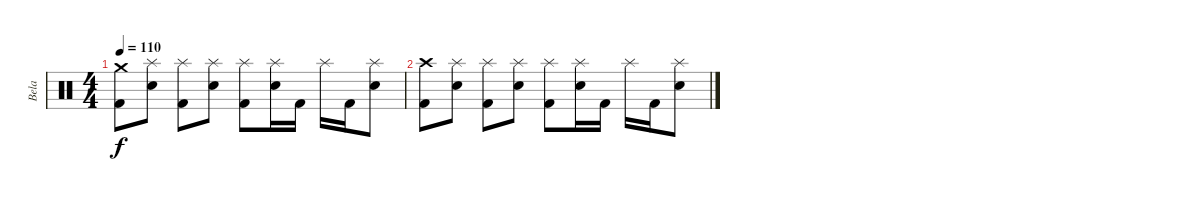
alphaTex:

\track ("Bela " "Bela ") {instrument percussion}
\staff {score}
\articulation defaults
\ts (4 4)
\tempo 110
\clef neutral
\ks c
("Crash medium (hit)" "Kick (hit) 2").8{dy f} ("Splash (hit)" "Electric Snare (hit)").8 ("Splash (hit)" "Kick (hit) 2").8 ("Splash (hit)" "Electric Snare (hit)").8 ("Splash (hit)" "Kick (hit) 2").8 ("Splash (hit)" "Electric Snare (hit)").16 "Kick (hit) 2".16 "Splash (hit)".16 "Kick (hit) 2".16 ("Splash (hit)" "Electric Snare (hit)").8 |
("Crash high (hit)" "Kick (hit) 2").8 ("Splash (hit)" "Electric Snare (hit)").8 ("Splash (hit)" "Kick (hit) 2").8 ("Splash (hit)" "Electric Snare (hit)").8 ("Splash (hit)" "Kick (hit) 2").8 ("Splash (hit)" "Electric Snare (hit)").16 "Kick (hit) 2".16 "Splash (hit)".16 "Kick (hit) 2".16 ("Splash (hit)" "Electric Snare (hit)").8
